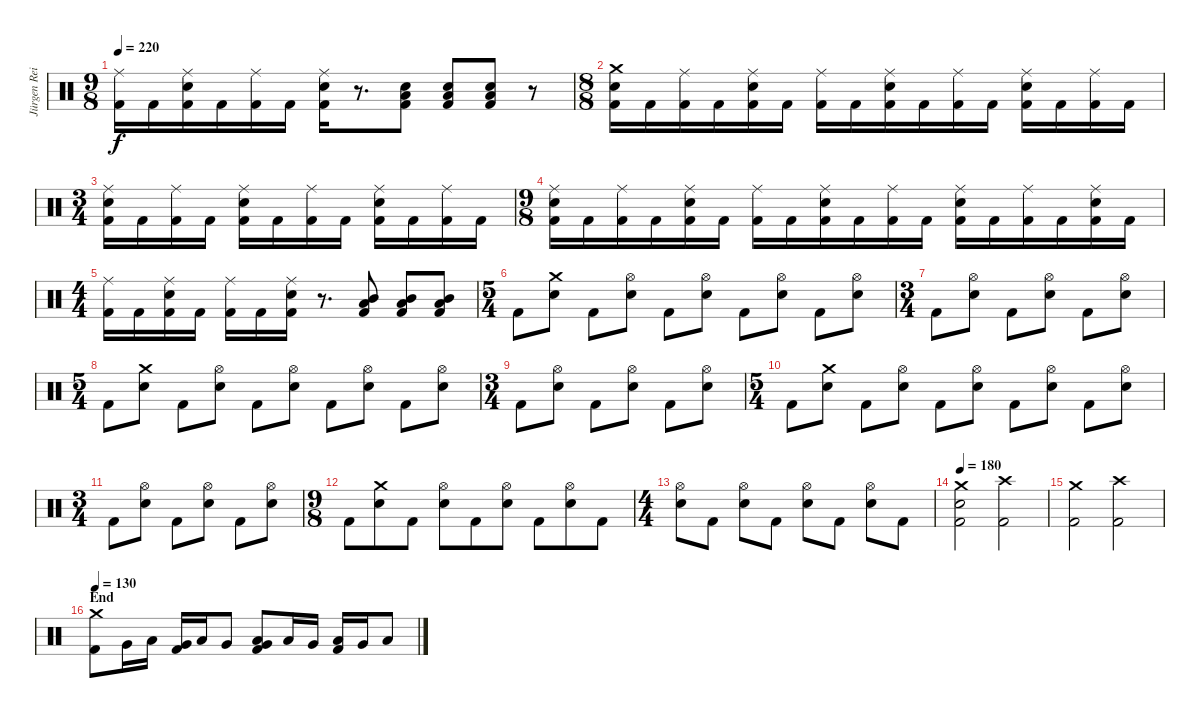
\track ("Jürgen Reil" "Jürgen Rei") {instrument percussion}
\staff {score}
\articulation defaults
\ts (9 8)
\tempo 220
\clef neutral
\ks c
("Ride (middle)" "Kick (hit) 2").16{dy f} "Kick (hit) 2".16 ("Ride (middle)" "Electric Snare (hit)" "Kick (hit) 2").16 "Kick (hit) 2".16 ("Ride (middle)" "Kick (hit) 2").16 "Kick (hit) 2".16 ("Ride (middle)" "Electric Snare (hit)" "Kick (hit) 2").16 r.8{d} ("Low Floor Tom (hit)" "Electric Snare (hit)" "Kick (hit) 2").8 ("Low Floor Tom (hit)" "Electric Snare (hit)" "Kick (hit) 2").8 ("Low Floor Tom (hit)" "Electric Snare (hit)" "Kick (hit) 2").8 r.8 |
\ts (8 8)
("Crash medium (hit)" "Electric Snare (hit)" "Kick (hit) 2").16 "Kick (hit) 2".16 ("Ride (middle)" "Kick (hit) 2").16 "Kick (hit) 2".16 ("Ride (middle)" "Electric Snare (hit)" "Kick (hit) 2").16 "Kick (hit) 2".16 ("Ride (middle)" "Kick (hit) 2").16 "Kick (hit) 2".16 ("Ride (middle)" "Electric Snare (hit)" "Kick (hit) 2").16 "Kick (hit) 2".16 ("Ride (middle)" "Kick (hit) 2").16 "Kick (hit) 2".16 ("Ride (middle)" "Electric Snare (hit)" "Kick (hit) 2").16 "Kick (hit) 2".16 ("Ride (middle)" "Kick (hit) 2").16 "Kick (hit) 2".16 |
\ts (3 4)
("Ride (middle)" "Electric Snare (hit)" "Kick (hit) 2").16 "Kick (hit) 2".16 ("Ride (middle)" "Kick (hit) 2").16 "Kick (hit) 2".16 ("Ride (middle)" "Electric Snare (hit)" "Kick (hit) 2").16 "Kick (hit) 2".16 ("Ride (middle)" "Kick (hit) 2").16 "Kick (hit) 2".16 ("Ride (middle)" "Electric Snare (hit)" "Kick (hit) 2").16 "Kick (hit) 2".16 ("Ride (middle)" "Kick (hit) 2").16 "Kick (hit) 2".16 |
\ts (9 8)
("Ride (middle)" "Electric Snare (hit)" "Kick (hit) 2").16 "Kick (hit) 2".16 ("Ride (middle)" "Kick (hit) 2").16 "Kick (hit) 2".16 ("Ride (middle)" "Electric Snare (hit)" "Kick (hit) 2").16 "Kick (hit) 2".16 ("Ride (middle)" "Kick (hit) 2").16 "Kick (hit) 2".16 ("Ride (middle)" "Electric Snare (hit)" "Kick (hit) 2").16 "Kick (hit) 2".16 ("Ride (middle)" "Kick (hit) 2").16 "Kick (hit) 2".16 ("Ride (middle)" "Electric Snare (hit)" "Kick (hit) 2").16 "Kick (hit) 2".16 ("Ride (middle)" "Kick (hit) 2").16 "Kick (hit) 2".16 ("Ride (middle)" "Electric Snare (hit)" "Kick (hit) 2").16 "Kick (hit) 2".16 |
\ts (4 4)
("Ride (middle)" "Kick (hit) 2").16 "Kick (hit) 2".16 ("Ride (middle)" "Electric Snare (hit)" "Kick (hit) 2").16 "Kick (hit) 2".16 ("Ride (middle)" "Kick (hit) 2").16 "Kick (hit) 2".16 ("Ride (middle)" "Electric Snare (hit)" "Kick (hit) 2").16 r.8{d} ("Mid Tom (hit)" "Low Tom (hit)" "Kick (hit) 2").8 ("Mid Tom (hit)" "Low Tom (hit)" "Kick (hit) 2").8 ("Mid Tom (hit)" "Low Tom (hit)" "Kick (hit) 2").8 |
\ts (5 4)
"Kick (hit) 2".8 ("Crash medium (hit)" "Electric Snare (hit)").8 "Kick (hit) 2".8 ("Hi-Hat (open)" "Electric Snare (hit)").8 "Kick (hit) 2".8 ("Hi-Hat (open)" "Electric Snare (hit)").8 "Kick (hit) 2".8 ("Hi-Hat (open)" "Electric Snare (hit)").8 "Kick (hit) 2".8 ("Hi-Hat (open)" "Electric Snare (hit)").8 |
\ts (3 4)
"Kick (hit) 2".8 ("Hi-Hat (open)" "Electric Snare (hit)").8 "Kick (hit) 2".8 ("Hi-Hat (open)" "Electric Snare (hit)").8 "Kick (hit) 2".8 ("Hi-Hat (open)" "Electric Snare (hit)").8 |
\ts (5 4)
"Kick (hit) 2".8 ("Crash medium (hit)" "Electric Snare (hit)").8 "Kick (hit) 2".8 ("Hi-Hat (open)" "Electric Snare (hit)").8 "Kick (hit) 2".8 ("Hi-Hat (open)" "Electric Snare (hit)").8 "Kick (hit) 2".8 ("Hi-Hat (open)" "Electric Snare (hit)").8 "Kick (hit) 2".8 ("Hi-Hat (open)" "Electric Snare (hit)").8 |
\ts (3 4)
"Kick (hit) 2".8 ("Hi-Hat (open)" "Electric Snare (hit)").8 "Kick (hit) 2".8 ("Hi-Hat (open)" "Electric Snare (hit)").8 "Kick (hit) 2".8 ("Hi-Hat (open)" "Electric Snare (hit)").8 |
\ts (5 4)
"Kick (hit) 2".8 ("Crash medium (hit)" "Electric Snare (hit)").8 "Kick (hit) 2".8 ("Hi-Hat (open)" "Electric Snare (hit)").8 "Kick (hit) 2".8 ("Hi-Hat (open)" "Electric Snare (hit)").8 "Kick (hit) 2".8 ("Hi-Hat (open)" "Electric Snare (hit)").8 "Kick (hit) 2".8 ("Hi-Hat (open)" "Electric Snare (hit)").8 |
\ts (3 4)
"Kick (hit) 2".8 ("Hi-Hat (open)" "Electric Snare (hit)").8 "Kick (hit) 2".8 ("Hi-Hat (open)" "Electric Snare (hit)").8 "Kick (hit) 2".8 ("Hi-Hat (open)" "Electric Snare (hit)").8 |
\ts (9 8)
"Kick (hit) 2".8 ("Crash medium (hit)" "Electric Snare (hit)").8 "Kick (hit) 2".8 ("Hi-Hat (open)" "Electric Snare (hit)").8 "Kick (hit) 2".8 ("Hi-Hat (open)" "Electric Snare (hit)").8 "Kick (hit) 2".8 ("Hi-Hat (open)" "Electric Snare (hit)").8 "Kick (hit) 2".8 |
\ts (4 4)
("Hi-Hat (open)" "Electric Snare (hit)").8 "Kick (hit) 2".8 ("Hi-Hat (open)" "Electric Snare (hit)").8 "Kick (hit) 2".8 ("Hi-Hat (open)" "Electric Snare (hit)").8 "Kick (hit) 2".8 ("Hi-Hat (open)" "Electric Snare (hit)").8 "Kick (hit) 2".8 |
\tempo 180
("Crash medium (hit)" "Electric Snare (hit)" "Kick (hit) 2").2 ("Crash high (hit)" "Kick (hit) 2").2 |
("Crash medium (hit)" "Kick (hit) 2").2 ("Crash high (hit)" "Kick (hit) 2").2 |
\section ("" "End")
\tempo 130
("Crash medium (hit)" "Kick (hit) 2").8 "Very Low Tom (hit)".16 "Low Tom (hit)".16 ("Very Low Tom (hit)" "Kick (hit) 2").16 "Low Tom (hit)".16 "Very Low Tom (hit)".8 ("Low Tom (hit)" "Very Low Tom (hit)" "Kick (hit) 2").8 "Low Tom (hit)".16 "Very Low Tom (hit)".16 ("Low Tom (hit)" "Kick (hit) 2").16 "Very Low Tom (hit)".16 "Low Tom (hit)".8
